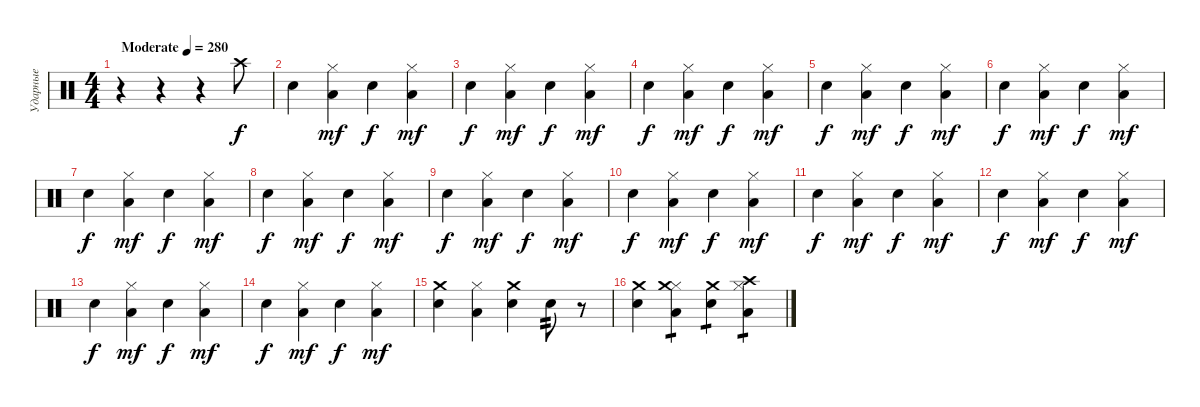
\track ("Ударные" "Ударные") {instrument percussion}
\staff {score}
\articulation defaults
\ts (4 4)
\tempo (280 "Moderate")
\clef neutral
\ks c
r.4{dy f} r.4 r.4 "Crash high (hit)".8 |
"Snare (hit) 2".4 ("Low Tom (hit)" "Hi-Hat (closed)").4{dy mf} "Snare (hit) 2".4{dy f} ("Low Tom (hit)" "Hi-Hat (closed)").4{dy mf} |
"Snare (hit) 2".4{dy f} ("Low Tom (hit)" "Hi-Hat (closed)").4{dy mf} "Snare (hit) 2".4{dy f} ("Low Tom (hit)" "Hi-Hat (closed)").4{dy mf} |
"Snare (hit) 2".4{dy f} ("Low Tom (hit)" "Hi-Hat (closed)").4{dy mf} "Snare (hit) 2".4{dy f} ("Low Tom (hit)" "Hi-Hat (closed)").4{dy mf} |
"Snare (hit) 2".4{dy f} ("Low Tom (hit)" "Hi-Hat (closed)").4{dy mf} "Snare (hit) 2".4{dy f} ("Low Tom (hit)" "Hi-Hat (closed)").4{dy mf} |
"Snare (hit) 2".4{dy f} ("Low Tom (hit)" "Hi-Hat (closed)").4{dy mf} "Snare (hit) 2".4{dy f} ("Low Tom (hit)" "Hi-Hat (closed)").4{dy mf} |
"Snare (hit) 2".4{dy f} ("Low Tom (hit)" "Hi-Hat (closed)").4{dy mf} "Snare (hit) 2".4{dy f} ("Low Tom (hit)" "Hi-Hat (closed)").4{dy mf} |
"Snare (hit) 2".4{dy f} ("Low Tom (hit)" "Hi-Hat (closed)").4{dy mf} "Snare (hit) 2".4{dy f} ("Low Tom (hit)" "Hi-Hat (closed)").4{dy mf} |
"Snare (hit) 2".4{dy f} ("Low Tom (hit)" "Hi-Hat (closed)").4{dy mf} "Snare (hit) 2".4{dy f} ("Low Tom (hit)" "Hi-Hat (closed)").4{dy mf} |
"Snare (hit) 2".4{dy f} ("Low Tom (hit)" "Hi-Hat (closed)").4{dy mf} "Snare (hit) 2".4{dy f} ("Low Tom (hit)" "Hi-Hat (closed)").4{dy mf} |
"Snare (hit) 2".4{dy f} ("Low Tom (hit)" "Hi-Hat (closed)").4{dy mf} "Snare (hit) 2".4{dy f} ("Low Tom (hit)" "Hi-Hat (closed)").4{dy mf} |
"Snare (hit) 2".4{dy f} ("Low Tom (hit)" "Hi-Hat (closed)").4{dy mf} "Snare (hit) 2".4{dy f} ("Low Tom (hit)" "Hi-Hat (closed)").4{dy mf} |
"Snare (hit) 2".4{dy f} ("Low Tom (hit)" "Hi-Hat (closed)").4{dy mf} "Snare (hit) 2".4{dy f} ("Low Tom (hit)" "Hi-Hat (closed)").4{dy mf} |
"Snare (hit) 2".4{dy f} ("Low Tom (hit)" "Hi-Hat (closed)").4{dy mf} "Snare (hit) 2".4{dy f} ("Low Tom (hit)" "Hi-Hat (closed)").4{dy mf} |
("Snare (hit) 2" "Crash medium (hit)").4 ("Low Tom (hit)" "Hi-Hat (closed)").4 ("Snare (hit) 2" "Crash medium (hit)").4 "Snare (hit) 2".8{tp 2} r.8 |
("Snare (hit) 2" "Crash medium (hit)").4 ("Low Tom (hit)" "Hi-Hat (closed)" "Crash medium (hit)").4{tp 1} ("Snare (hit) 2" "Crash medium (hit)").4{tp 1} ("Low Tom (hit)" "Hi-Hat (closed)" "Crash high (hit)").4{tp 1}
